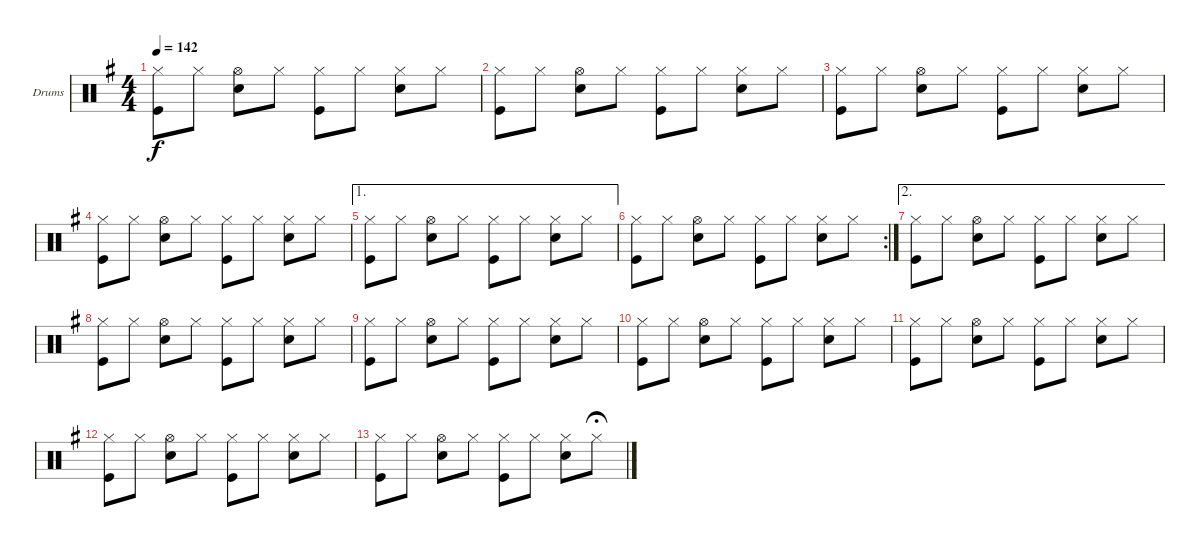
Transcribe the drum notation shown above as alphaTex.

\bracketExtendMode groupsimilarinstruments
\firstSystemTrackNameOrientation horizontal
\otherSystemsTrackNameOrientation horizontal
\track ("Drumkit" "Drums") {instrument percussion}
\staff {score}
\articulation defaults
\ts (4 4)
\tempo 142
\clef neutral
\ks g
("Hi-Hat (closed)" "Kick (hit)").8{dy f} "Hi-Hat (closed)".8 ("Hi-Hat (open)" "Snare (hit) 2").8 "Hi-Hat (closed)".8 ("Hi-Hat (closed)" "Kick (hit)").8 "Hi-Hat (closed)".8 ("Hi-Hat (closed)" "Snare (hit) 2").8 "Hi-Hat (closed)".8 |
("Hi-Hat (closed)" "Kick (hit)").8 "Hi-Hat (closed)".8 ("Hi-Hat (open)" "Snare (hit) 2").8 "Hi-Hat (closed)".8 ("Hi-Hat (closed)" "Kick (hit)").8 "Hi-Hat (closed)".8 ("Hi-Hat (closed)" "Snare (hit) 2").8 "Hi-Hat (closed)".8 |
("Hi-Hat (closed)" "Kick (hit)").8 "Hi-Hat (closed)".8 ("Hi-Hat (open)" "Snare (hit) 2").8 "Hi-Hat (closed)".8 ("Hi-Hat (closed)" "Kick (hit)").8 "Hi-Hat (closed)".8 ("Hi-Hat (closed)" "Snare (hit) 2").8 "Hi-Hat (closed)".8 |
("Hi-Hat (closed)" "Kick (hit)").8 "Hi-Hat (closed)".8 ("Hi-Hat (open)" "Snare (hit) 2").8 "Hi-Hat (closed)".8 ("Hi-Hat (closed)" "Kick (hit)").8 "Hi-Hat (closed)".8 ("Hi-Hat (closed)" "Snare (hit) 2").8 "Hi-Hat (closed)".8 |
\ae 1
("Hi-Hat (closed)" "Kick (hit)").8 "Hi-Hat (closed)".8 ("Hi-Hat (open)" "Snare (hit) 2").8 "Hi-Hat (closed)".8 ("Hi-Hat (closed)" "Kick (hit)").8 "Hi-Hat (closed)".8 ("Hi-Hat (closed)" "Snare (hit) 2").8 "Hi-Hat (closed)".8 |
\rc 2
("Hi-Hat (closed)" "Kick (hit)").8 "Hi-Hat (closed)".8 ("Hi-Hat (open)" "Snare (hit) 2").8 "Hi-Hat (closed)".8 ("Hi-Hat (closed)" "Kick (hit)").8 "Hi-Hat (closed)".8 ("Hi-Hat (closed)" "Snare (hit) 2").8 "Hi-Hat (closed)".8 |
\ae 2
("Hi-Hat (closed)" "Kick (hit)").8 "Hi-Hat (closed)".8 ("Hi-Hat (open)" "Snare (hit) 2").8 "Hi-Hat (closed)".8 ("Hi-Hat (closed)" "Kick (hit)").8 "Hi-Hat (closed)".8 ("Hi-Hat (closed)" "Snare (hit) 2").8 "Hi-Hat (closed)".8 |
("Hi-Hat (closed)" "Kick (hit)").8 "Hi-Hat (closed)".8 ("Hi-Hat (open)" "Snare (hit) 2").8 "Hi-Hat (closed)".8 ("Hi-Hat (closed)" "Kick (hit)").8 "Hi-Hat (closed)".8 ("Hi-Hat (closed)" "Snare (hit) 2").8 "Hi-Hat (closed)".8 |
("Hi-Hat (closed)" "Kick (hit)").8 "Hi-Hat (closed)".8 ("Hi-Hat (open)" "Snare (hit) 2").8 "Hi-Hat (closed)".8 ("Hi-Hat (closed)" "Kick (hit)").8 "Hi-Hat (closed)".8 ("Hi-Hat (closed)" "Snare (hit) 2").8 "Hi-Hat (closed)".8 |
("Hi-Hat (closed)" "Kick (hit)").8 "Hi-Hat (closed)".8 ("Hi-Hat (open)" "Snare (hit) 2").8 "Hi-Hat (closed)".8 ("Hi-Hat (closed)" "Kick (hit)").8 "Hi-Hat (closed)".8 ("Hi-Hat (closed)" "Snare (hit) 2").8 "Hi-Hat (closed)".8 |
("Hi-Hat (closed)" "Kick (hit)").8 "Hi-Hat (closed)".8 ("Hi-Hat (open)" "Snare (hit) 2").8 "Hi-Hat (closed)".8 ("Hi-Hat (closed)" "Kick (hit)").8 "Hi-Hat (closed)".8 ("Hi-Hat (closed)" "Snare (hit) 2").8 "Hi-Hat (closed)".8 |
("Hi-Hat (closed)" "Kick (hit)").8 "Hi-Hat (closed)".8 ("Hi-Hat (open)" "Snare (hit) 2").8 "Hi-Hat (closed)".8 ("Hi-Hat (closed)" "Kick (hit)").8 "Hi-Hat (closed)".8 ("Hi-Hat (closed)" "Snare (hit) 2").8 "Hi-Hat (closed)".8 |
("Hi-Hat (closed)" "Kick (hit)").8 "Hi-Hat (closed)".8 ("Hi-Hat (open)" "Snare (hit) 2").8 "Hi-Hat (closed)".8 ("Hi-Hat (closed)" "Kick (hit)").8 "Hi-Hat (closed)".8 ("Hi-Hat (closed)" "Snare (hit) 2").8 "Hi-Hat (closed)".8{fermata (medium 0.5)}
